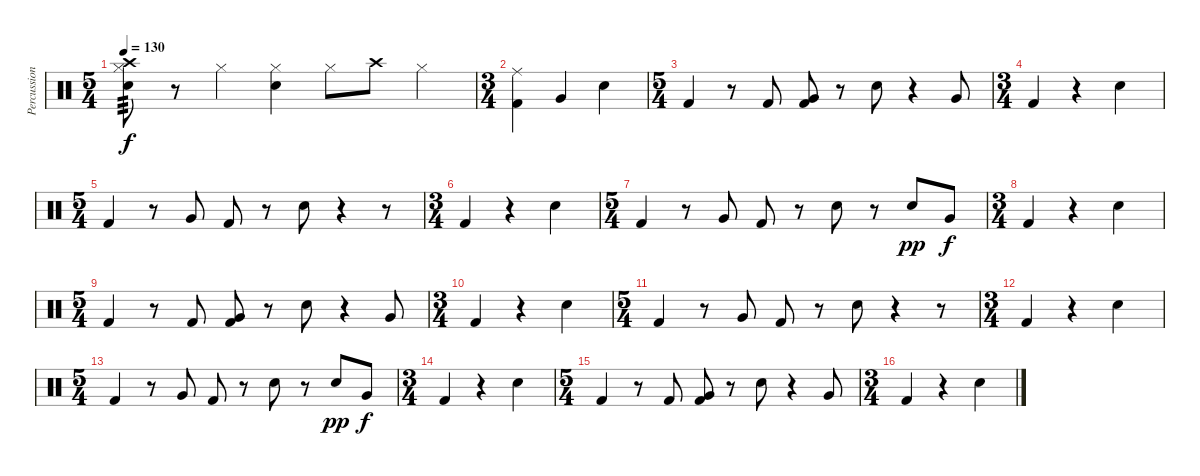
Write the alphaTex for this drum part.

\track ("Percussion" "Percussion") {instrument percussion}
\staff {score}
\articulation defaults
\ts (5 4)
\tempo 130
\clef neutral
\ks c
("Crash high (hit)" "Hi-Hat (closed)" "Electric Snare (hit)").8{tp 3 dy f} r.8 "Hi-Hat (closed)".4 ("Hi-Hat (closed)" "Electric Snare (hit)").4 "Hi-Hat (closed)".8 "Crash high (hit)".8 "Hi-Hat (closed)".4 |
\ts (3 4)
("Ride (middle)" "Kick (hit) 2").4 "Very Low Tom (hit)".4 "Electric Snare (hit)".4 |
\ts (5 4)
"Kick (hit) 2".4 r.8 "Kick (hit) 2".8 ("Very Low Tom (hit)" "Kick (hit) 2").8 r.8 "Electric Snare (hit)".8 r.4 "Very Low Tom (hit)".8 |
\ts (3 4)
"Kick (hit) 2".4 r.4 "Electric Snare (hit)".4 |
\ts (5 4)
"Kick (hit) 2".4 r.8 "Very Low Tom (hit)".8 "Kick (hit) 2".8 r.8 "Electric Snare (hit)".8 r.4 r.8 |
\ts (3 4)
"Kick (hit) 2".4 r.4 "Electric Snare (hit)".4 |
\ts (5 4)
"Kick (hit) 2".4 r.8 "Very Low Tom (hit)".8 "Kick (hit) 2".8 r.8 "Electric Snare (hit)".8 r.8 "Electric Snare (hit)".8{dy pp} "Very Low Tom (hit)".8{dy f} |
\ts (3 4)
"Kick (hit) 2".4 r.4 "Electric Snare (hit)".4 |
\ts (5 4)
"Kick (hit) 2".4 r.8 "Kick (hit) 2".8 ("Very Low Tom (hit)" "Kick (hit) 2").8 r.8 "Electric Snare (hit)".8 r.4 "Very Low Tom (hit)".8 |
\ts (3 4)
"Kick (hit) 2".4 r.4 "Electric Snare (hit)".4 |
\ts (5 4)
"Kick (hit) 2".4 r.8 "Very Low Tom (hit)".8 "Kick (hit) 2".8 r.8 "Electric Snare (hit)".8 r.4 r.8 |
\ts (3 4)
"Kick (hit) 2".4 r.4 "Electric Snare (hit)".4 |
\ts (5 4)
"Kick (hit) 2".4 r.8 "Very Low Tom (hit)".8 "Kick (hit) 2".8 r.8 "Electric Snare (hit)".8 r.8 "Electric Snare (hit)".8{dy pp} "Very Low Tom (hit)".8{dy f} |
\ts (3 4)
"Kick (hit) 2".4 r.4 "Electric Snare (hit)".4 |
\ts (5 4)
"Kick (hit) 2".4 r.8 "Kick (hit) 2".8 ("Very Low Tom (hit)" "Kick (hit) 2").8 r.8 "Electric Snare (hit)".8 r.4 "Very Low Tom (hit)".8 |
\ts (3 4)
"Kick (hit) 2".4 r.4 "Electric Snare (hit)".4
